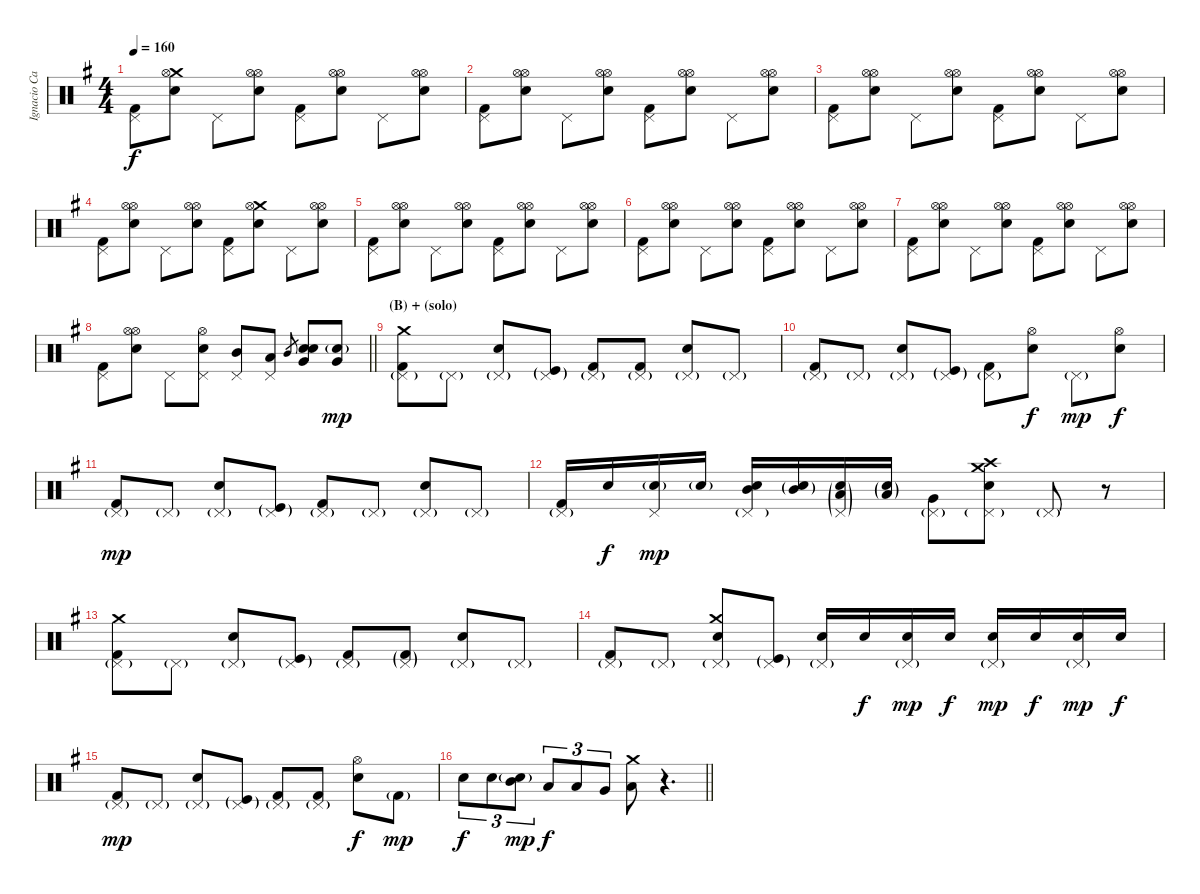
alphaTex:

\track ("Ignacio Cantera - Batería" "Ignacio Ca") {instrument percussion}
\staff {score}
\articulation defaults
\ts (4 4)
\section ("" "")
\tempo 160
\clef neutral
\ks eminor
("Pedal Hi-Hat (hit)" "Kick (hit) 2").8{dy f} ("Crash medium (hit)" "Snare (hit) 2" "Hi-Hat (open)").8 "Pedal Hi-Hat (hit)".8 ("Hi-Hat (open)" "Snare (hit) 2" "Hi-Hat (open)").8 ("Pedal Hi-Hat (hit)" "Kick (hit) 2").8 ("Hi-Hat (open)" "Snare (hit) 2" "Hi-Hat (open)").8 "Pedal Hi-Hat (hit)".8 ("Hi-Hat (open)" "Snare (hit) 2" "Hi-Hat (open)").8 |
("Pedal Hi-Hat (hit)" "Kick (hit) 2").8 ("Hi-Hat (open)" "Snare (hit) 2" "Hi-Hat (open)").8 "Pedal Hi-Hat (hit)".8 ("Hi-Hat (open)" "Snare (hit) 2" "Hi-Hat (open)").8 ("Pedal Hi-Hat (hit)" "Kick (hit) 2").8 ("Hi-Hat (open)" "Snare (hit) 2" "Hi-Hat (open)").8 "Pedal Hi-Hat (hit)".8 ("Hi-Hat (open)" "Snare (hit) 2" "Hi-Hat (open)").8 |
("Pedal Hi-Hat (hit)" "Kick (hit) 2").8 ("Hi-Hat (open)" "Snare (hit) 2" "Hi-Hat (open)").8 "Pedal Hi-Hat (hit)".8 ("Hi-Hat (open)" "Snare (hit) 2" "Hi-Hat (open)").8 ("Pedal Hi-Hat (hit)" "Kick (hit) 2").8 ("Hi-Hat (open)" "Snare (hit) 2" "Hi-Hat (open)").8 "Pedal Hi-Hat (hit)".8 ("Hi-Hat (open)" "Snare (hit) 2" "Hi-Hat (open)").8 |
("Pedal Hi-Hat (hit)" "Kick (hit) 2").8 ("Hi-Hat (open)" "Snare (hit) 2" "Hi-Hat (open)").8 "Pedal Hi-Hat (hit)".8 ("Hi-Hat (open)" "Snare (hit) 2" "Hi-Hat (open)").8 ("Pedal Hi-Hat (hit)" "Kick (hit) 2").8 ("Crash medium (hit)" "Snare (hit) 2" "Hi-Hat (open)").8 "Pedal Hi-Hat (hit)".8 ("Hi-Hat (open)" "Snare (hit) 2" "Hi-Hat (open)").8 |
("Pedal Hi-Hat (hit)" "Kick (hit) 2").8 ("Hi-Hat (open)" "Snare (hit) 2" "Hi-Hat (open)").8 "Pedal Hi-Hat (hit)".8 ("Hi-Hat (open)" "Snare (hit) 2" "Hi-Hat (open)").8 ("Pedal Hi-Hat (hit)" "Kick (hit) 2").8 ("Hi-Hat (open)" "Snare (hit) 2" "Hi-Hat (open)").8 "Pedal Hi-Hat (hit)".8 ("Hi-Hat (open)" "Snare (hit) 2" "Hi-Hat (open)").8 |
("Pedal Hi-Hat (hit)" "Kick (hit) 2").8 ("Hi-Hat (open)" "Snare (hit) 2" "Hi-Hat (open)").8 "Pedal Hi-Hat (hit)".8 ("Hi-Hat (open)" "Snare (hit) 2" "Hi-Hat (open)").8 ("Pedal Hi-Hat (hit)" "Kick (hit) 2").8 ("Hi-Hat (open)" "Snare (hit) 2" "Hi-Hat (open)").8 "Pedal Hi-Hat (hit)".8 ("Hi-Hat (open)" "Snare (hit) 2" "Hi-Hat (open)").8 |
("Pedal Hi-Hat (hit)" "Kick (hit) 2").8 ("Hi-Hat (open)" "Snare (hit) 2" "Hi-Hat (open)").8 "Pedal Hi-Hat (hit)".8 ("Hi-Hat (open)" "Snare (hit) 2" "Hi-Hat (open)").8 ("Pedal Hi-Hat (hit)" "Kick (hit) 2").8 ("Hi-Hat (open)" "Snare (hit) 2" "Hi-Hat (open)").8 "Pedal Hi-Hat (hit)".8 ("Hi-Hat (open)" "Snare (hit) 2" "Hi-Hat (open)").8 |
\barLineRight lightlight
("Pedal Hi-Hat (hit)" "Kick (hit) 2").8 ("Hi-Hat (open)" "Snare (hit) 2" "Hi-Hat (open)").8 "Pedal Hi-Hat (hit)".8 ("Pedal Hi-Hat (hit)" "Snare (hit) 2" "Hi-Hat (open)").8 ("Pedal Hi-Hat (hit)" "Mid Tom (hit)").8 ("Pedal Hi-Hat (hit)" "Low Tom (hit)").8 "Mid Tom (hit)".8{gr} ("Electric Snare (hit)" "Very Low Tom (hit)" "Snare (hit) 2").8 ("Very Low Tom (hit)" "Snare (hit) 2"{g}).8{dy mp} |
\section ("" "(B) + (solo)")
("Pedal Hi-Hat (hit)"{g} "Crash medium (hit)" "Kick (hit) 2").8 "Pedal Hi-Hat (hit)"{g}.8 ("Pedal Hi-Hat (hit)"{g} "Snare (hit) 2").8 ("Pedal Hi-Hat (hit)"{g} "Kick (hit)"{g}).8 ("Pedal Hi-Hat (hit)"{g} "Kick (hit) 2").8 ("Pedal Hi-Hat (hit)"{g} "Kick (hit) 2").8 ("Pedal Hi-Hat (hit)"{g} "Snare (hit) 2").8 "Pedal Hi-Hat (hit)"{g}.8 |
("Pedal Hi-Hat (hit)"{g} "Kick (hit) 2").8 "Pedal Hi-Hat (hit)"{g}.8 ("Pedal Hi-Hat (hit)"{g} "Snare (hit) 2").8 ("Pedal Hi-Hat (hit)"{g} "Kick (hit)"{g}).8 ("Pedal Hi-Hat (hit)"{g} "Kick (hit) 2").8 ("Hi-Hat (open)" "Snare (hit) 2").8{dy f} "Pedal Hi-Hat (hit)"{g}.8{dy mp} ("Hi-Hat (open)" "Snare (hit) 2").8{dy f} |
("Pedal Hi-Hat (hit)"{g} "Kick (hit) 2").8{dy mp} "Pedal Hi-Hat (hit)"{g}.8 ("Pedal Hi-Hat (hit)"{g} "Snare (hit) 2").8 ("Pedal Hi-Hat (hit)"{g} "Kick (hit)"{g}).8 ("Pedal Hi-Hat (hit)"{g} "Kick (hit) 2").8 "Pedal Hi-Hat (hit)"{g}.8 ("Pedal Hi-Hat (hit)"{g} "Snare (hit) 2").8 "Pedal Hi-Hat (hit)"{g}.8 |
("Pedal Hi-Hat (hit)"{g} "Kick (hit) 2").16 "Snare (hit) 2".16{dy f} ("Pedal Hi-Hat (hit)" "Snare (hit) 2"{g}).16{dy mp} "Snare (hit) 2"{g}.16 ("Pedal Hi-Hat (hit)"{g} "Mid Tom (hit)" "Snare (hit) 2").16 ("Mid Tom (hit)"{g} "Snare (hit) 2"{g}).16 ("Pedal Hi-Hat (hit)"{g} "Low Tom (hit)"{g} "Snare (hit) 2"{g}).16 ("Low Tom (hit)"{g} "Snare (hit) 2"{g}).16 ("Pedal Hi-Hat (hit)"{g} "Very Low Tom (hit)").8 ("Pedal Hi-Hat (hit)"{g} "Snare (hit) 2" "Crash medium (hit)" "Crash high (hit)").8 "Pedal Hi-Hat (hit)"{g}.8 r.8 |
("Pedal Hi-Hat (hit)"{g} "Crash medium (hit)" "Kick (hit) 2").8 "Pedal Hi-Hat (hit)"{g}.8 ("Pedal Hi-Hat (hit)"{g} "Snare (hit) 2").8 ("Pedal Hi-Hat (hit)"{g} "Kick (hit)"{g}).8 ("Pedal Hi-Hat (hit)"{g} "Kick (hit) 2").8 ("Pedal Hi-Hat (hit)"{g} "Kick (hit) 2"{g}).8 ("Pedal Hi-Hat (hit)"{g} "Snare (hit) 2").8 "Pedal Hi-Hat (hit)"{g}.8 |
("Pedal Hi-Hat (hit)"{g} "Kick (hit) 2").8 "Pedal Hi-Hat (hit)"{g}.8 ("Pedal Hi-Hat (hit)"{g} "Snare (hit) 2" "Crash medium (hit)").8 ("Pedal Hi-Hat (hit)"{g} "Kick (hit)"{g}).8 ("Pedal Hi-Hat (hit)"{g} "Electric Snare (hit)").16 "Electric Snare (hit)".16{dy f} ("Pedal Hi-Hat (hit)"{g} "Electric Snare (hit)").16{dy mp} "Electric Snare (hit)".16{dy f} ("Pedal Hi-Hat (hit)"{g} "Electric Snare (hit)").16{dy mp} "Electric Snare (hit)".16{dy f} ("Pedal Hi-Hat (hit)"{g} "Electric Snare (hit)").16{dy mp} "Electric Snare (hit)".16{dy f} |
("Pedal Hi-Hat (hit)"{g} "Kick (hit) 2").8{dy mp} "Pedal Hi-Hat (hit)"{g}.8 ("Pedal Hi-Hat (hit)"{g} "Snare (hit) 2").8 ("Pedal Hi-Hat (hit)"{g} "Kick (hit)"{g}).8 ("Pedal Hi-Hat (hit)"{g} "Kick (hit) 2").8 ("Pedal Hi-Hat (hit)"{g} "Kick (hit) 2").8 ("Hi-Hat (open)" "Snare (hit) 2").8{dy f} "Kick (hit) 2"{g}.8{dy mp} |
\barLineRight lightlight "Snare (hit) 2".8{tu (3 2) dy f} "Snare (hit) 2".8{tu (3 2)}
("Snare (hit) 2"{g} "Mid Tom (hit)").8{tu (3 2) dy mp} "Low Tom (hit)".8{tu (3 2) dy f} "Low Tom (hit)".8{tu (3 2)} "Very Low Tom (hit)".8{tu (3 2)} ("Crash medium (hit)" "Low Floor Tom (hit)").8 r.4{d}
